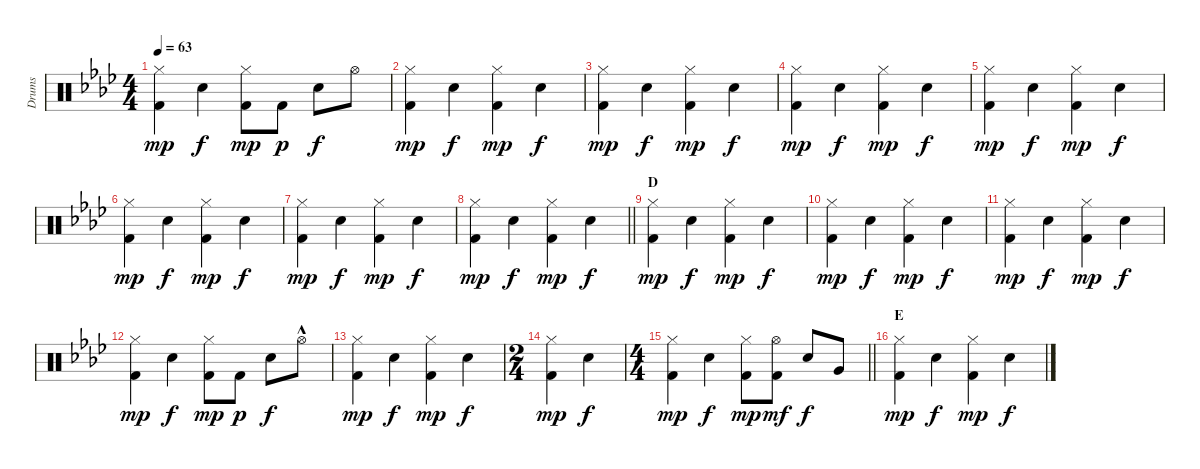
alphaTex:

\track ("Drums" "Drums") {instrument percussion}
\staff {score}
\articulation defaults
\ts (4 4)
\tempo 63
\clef neutral
\ks fminor
("Hi-Hat (closed)" "Kick (hit) 2").4{dy mp} "Electric Snare (hit)".4{dy f} ("Hi-Hat (closed)" "Kick (hit) 2").8{dy mp} "Kick (hit) 2".8{dy p} "Electric Snare (hit)".8{dy f} "Hi-Hat (open)".8 |
("Hi-Hat (closed)" "Kick (hit) 2").4{dy mp} "Electric Snare (hit)".4{dy f} ("Hi-Hat (closed)" "Kick (hit) 2").4{dy mp} "Electric Snare (hit)".4{dy f} |
("Hi-Hat (closed)" "Kick (hit) 2").4{dy mp} "Electric Snare (hit)".4{dy f} ("Hi-Hat (closed)" "Kick (hit) 2").4{dy mp} "Electric Snare (hit)".4{dy f} |
("Hi-Hat (closed)" "Kick (hit) 2").4{dy mp} "Electric Snare (hit)".4{dy f} ("Hi-Hat (closed)" "Kick (hit) 2").4{dy mp} "Electric Snare (hit)".4{dy f} |
("Hi-Hat (closed)" "Kick (hit) 2").4{dy mp} "Electric Snare (hit)".4{dy f} ("Hi-Hat (closed)" "Kick (hit) 2").4{dy mp} "Electric Snare (hit)".4{dy f} |
("Hi-Hat (closed)" "Kick (hit) 2").4{dy mp} "Electric Snare (hit)".4{dy f} ("Hi-Hat (closed)" "Kick (hit) 2").4{dy mp} "Electric Snare (hit)".4{dy f} |
("Hi-Hat (closed)" "Kick (hit) 2").4{dy mp} "Electric Snare (hit)".4{dy f} ("Hi-Hat (closed)" "Kick (hit) 2").4{dy mp} "Electric Snare (hit)".4{dy f} |
\barLineRight lightlight
("Hi-Hat (closed)" "Kick (hit) 2").4{dy mp} "Electric Snare (hit)".4{dy f} ("Hi-Hat (closed)" "Kick (hit) 2").4{dy mp} "Electric Snare (hit)".4{dy f} |
\section ("" "D")
("Hi-Hat (closed)" "Kick (hit) 2").4{dy mp} "Electric Snare (hit)".4{dy f} ("Hi-Hat (closed)" "Kick (hit) 2").4{dy mp} "Electric Snare (hit)".4{dy f} |
("Hi-Hat (closed)" "Kick (hit) 2").4{dy mp} "Electric Snare (hit)".4{dy f} ("Hi-Hat (closed)" "Kick (hit) 2").4{dy mp} "Electric Snare (hit)".4{dy f} |
("Hi-Hat (closed)" "Kick (hit) 2").4{dy mp} "Electric Snare (hit)".4{dy f} ("Hi-Hat (closed)" "Kick (hit) 2").4{dy mp} "Electric Snare (hit)".4{dy f} |
("Hi-Hat (closed)" "Kick (hit) 2").4{dy mp} "Electric Snare (hit)".4{dy f} ("Hi-Hat (closed)" "Kick (hit) 2").8{dy mp} "Kick (hit) 2".8{dy p} "Electric Snare (hit)".8{dy f} "Hi-Hat (open)"{hac}.8 |
("Hi-Hat (closed)" "Kick (hit) 2").4{dy mp} "Electric Snare (hit)".4{dy f} ("Hi-Hat (closed)" "Kick (hit) 2").4{dy mp} "Electric Snare (hit)".4{dy f} |
\ts (2 4)
("Hi-Hat (closed)" "Kick (hit) 2").4{dy mp} "Electric Snare (hit)".4{dy f} |
\ts (4 4)
\barLineRight lightlight
("Hi-Hat (closed)" "Kick (hit) 2").4{dy mp} "Electric Snare (hit)".4{dy f} ("Hi-Hat (closed)" "Kick (hit) 2").8{dy mp} ("Hi-Hat (open)" "Kick (hit) 2").8{dy mf} "Electric Snare (hit)".8{dy f} "Very Low Tom (hit)".8 |
\section ("" "E")
("Hi-Hat (closed)" "Kick (hit) 2").4{dy mp} "Electric Snare (hit)".4{dy f} ("Hi-Hat (closed)" "Kick (hit) 2").4{dy mp} "Electric Snare (hit)".4{dy f}
